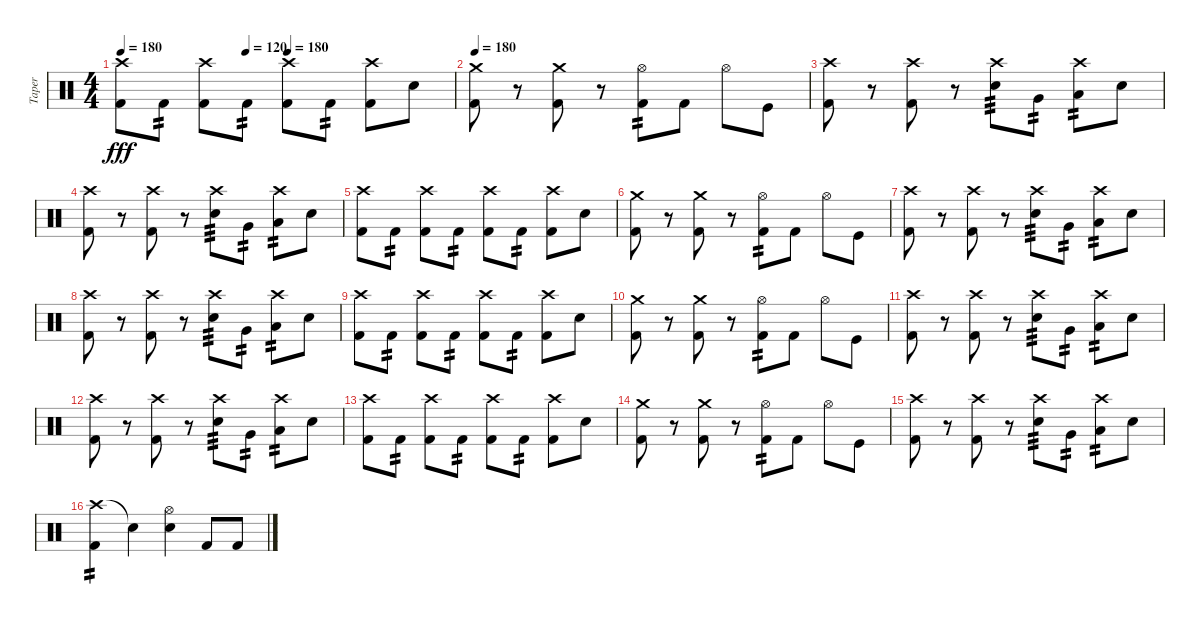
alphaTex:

\track ("Taper" "Taper") {instrument percussion}
\staff {score}
\articulation defaults
\ts (4 4)
\tempo 180
\tempo (120 0.375)
\tempo (180 0.5)
\clef neutral
\ks c
("Crash high (hit)" "Kick (hit) 2").8{dy fff} "Kick (hit) 2".8{tp 2} ("Crash high (hit)" "Kick (hit) 2").8 "Kick (hit) 2".8{tp 2} ("Crash high (hit)" "Kick (hit) 2").8 "Kick (hit) 2".8{tp 2} ("Crash high (hit)" "Kick (hit) 2").8 "Snare (hit) 2".8 |
\tempo 180
("Crash medium (hit)" "Kick (hit) 2").8 r.8 ("Crash medium (hit)" "Kick (hit) 2").8 r.8 ("Hi-Hat (open)" "Kick (hit) 2").8{tp 2} "Kick (hit) 2".8 "Hi-Hat (open)".8 "Kick (hit)".8 |
("Crash high (hit)" "Kick (hit) 2").8 r.8 ("Crash high (hit)" "Kick (hit) 2").8 r.8 ("Crash high (hit)" "Snare (hit) 2").8{tp 3} "Very Low Tom (hit)".8{tp 2} ("Crash high (hit)" "Low Floor Tom (hit)").8{tp 2} "Snare (hit) 2".8 |
("Crash high (hit)" "Kick (hit) 2").8 r.8 ("Crash high (hit)" "Kick (hit) 2").8 r.8 ("Crash high (hit)" "Snare (hit) 2").8{tp 3} "Very Low Tom (hit)".8{tp 2} ("Crash high (hit)" "Low Floor Tom (hit)").8{tp 2} "Snare (hit) 2".8 |
("Crash high (hit)" "Kick (hit) 2").8 "Kick (hit) 2".8{tp 2} ("Crash high (hit)" "Kick (hit) 2").8 "Kick (hit) 2".8{tp 2} ("Crash high (hit)" "Kick (hit) 2").8 "Kick (hit) 2".8{tp 2} ("Crash high (hit)" "Kick (hit) 2").8 "Snare (hit) 2".8 |
("Crash medium (hit)" "Kick (hit) 2").8 r.8 ("Crash medium (hit)" "Kick (hit) 2").8 r.8 ("Hi-Hat (open)" "Kick (hit) 2").8{tp 2} "Kick (hit) 2".8 "Hi-Hat (open)".8 "Kick (hit)".8 |
("Crash high (hit)" "Kick (hit) 2").8 r.8 ("Crash high (hit)" "Kick (hit) 2").8 r.8 ("Crash high (hit)" "Snare (hit) 2").8{tp 3} "Very Low Tom (hit)".8{tp 2} ("Crash high (hit)" "Low Floor Tom (hit)").8{tp 2} "Snare (hit) 2".8 |
("Crash high (hit)" "Kick (hit) 2").8 r.8 ("Crash high (hit)" "Kick (hit) 2").8 r.8 ("Crash high (hit)" "Snare (hit) 2").8{tp 3} "Very Low Tom (hit)".8{tp 2} ("Crash high (hit)" "Low Floor Tom (hit)").8{tp 2} "Snare (hit) 2".8 |
("Crash high (hit)" "Kick (hit) 2").8 "Kick (hit) 2".8{tp 2} ("Crash high (hit)" "Kick (hit) 2").8 "Kick (hit) 2".8{tp 2} ("Crash high (hit)" "Kick (hit) 2").8 "Kick (hit) 2".8{tp 2} ("Crash high (hit)" "Kick (hit) 2").8 "Snare (hit) 2".8 |
("Crash medium (hit)" "Kick (hit) 2").8 r.8 ("Crash medium (hit)" "Kick (hit) 2").8 r.8 ("Hi-Hat (open)" "Kick (hit) 2").8{tp 2} "Kick (hit) 2".8 "Hi-Hat (open)".8 "Kick (hit)".8 |
("Crash high (hit)" "Kick (hit) 2").8 r.8 ("Crash high (hit)" "Kick (hit) 2").8 r.8 ("Crash high (hit)" "Snare (hit) 2").8{tp 3} "Very Low Tom (hit)".8{tp 2} ("Crash high (hit)" "Low Floor Tom (hit)").8{tp 2} "Snare (hit) 2".8 |
("Crash high (hit)" "Kick (hit) 2").8 r.8 ("Crash high (hit)" "Kick (hit) 2").8 r.8 ("Crash high (hit)" "Snare (hit) 2").8{tp 3} "Very Low Tom (hit)".8{tp 2} ("Crash high (hit)" "Low Floor Tom (hit)").8{tp 2} "Snare (hit) 2".8 |
("Crash high (hit)" "Kick (hit) 2").8 "Kick (hit) 2".8{tp 2} ("Crash high (hit)" "Kick (hit) 2").8 "Kick (hit) 2".8{tp 2} ("Crash high (hit)" "Kick (hit) 2").8 "Kick (hit) 2".8{tp 2} ("Crash high (hit)" "Kick (hit) 2").8 "Snare (hit) 2".8 |
("Crash medium (hit)" "Kick (hit) 2").8 r.8 ("Crash medium (hit)" "Kick (hit) 2").8 r.8 ("Hi-Hat (open)" "Kick (hit) 2").8{tp 2} "Kick (hit) 2".8 "Hi-Hat (open)".8 "Kick (hit)".8 |
("Crash high (hit)" "Kick (hit) 2").8 r.8 ("Crash high (hit)" "Kick (hit) 2").8 r.8 ("Crash high (hit)" "Snare (hit) 2").8{tp 3} "Very Low Tom (hit)".8{tp 2} ("Crash high (hit)" "Low Floor Tom (hit)").8{tp 2} "Snare (hit) 2".8 |
("Crash high (hit)" "Kick (hit) 2").4{tp 2} "Snare (hit)"{t}.4 ("Hi-Hat (open)" "Snare (hit) 2").4 "Kick (hit) 2".8 "Kick (hit) 2".8
